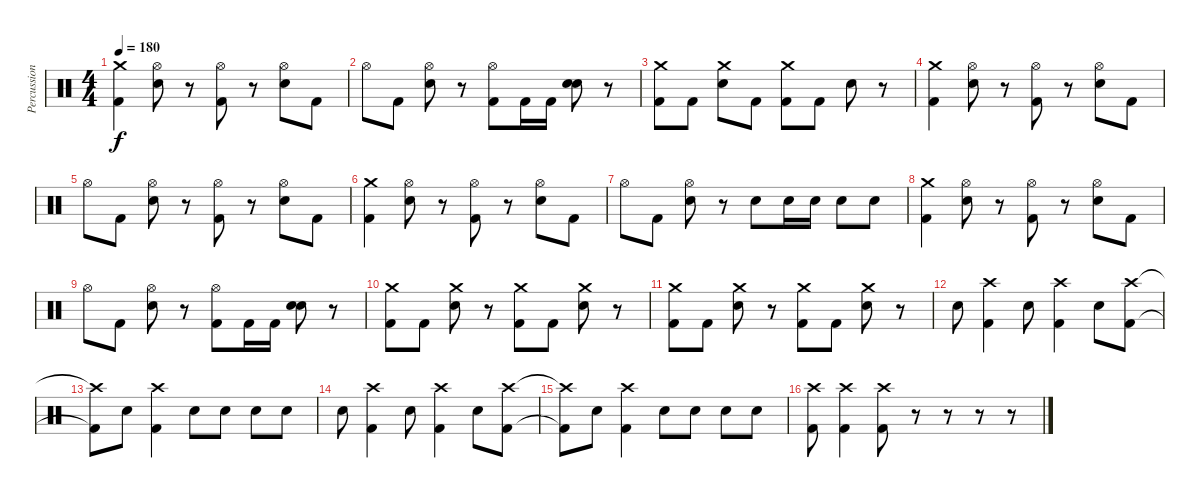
\track ("Percussion" "Percussion") {instrument percussion}
\staff {score}
\articulation defaults
\ts (4 4)
\tempo 180
\clef neutral
\ks c
("Crash medium (hit)" "Kick (hit) 2").4{dy f} ("Hi-Hat (open)" "Snare (hit) 2").8 r.8 ("Hi-Hat (open)" "Kick (hit) 2").8 r.8 ("Hi-Hat (open)" "Snare (hit) 2").8 "Kick (hit) 2".8 |
"Hi-Hat (open)".8 "Kick (hit) 2".8 ("Hi-Hat (open)" "Snare (hit) 2").8 r.8 ("Hi-Hat (open)" "Kick (hit) 2").8 "Kick (hit) 2".16 "Kick (hit) 2".16 ("Snare (hit) 2" "Snare (hit) 2").8 r.8 |
("Crash medium (hit)" "Kick (hit) 2").8 "Kick (hit) 2".8 ("Crash medium (hit)" "Snare (hit) 2").8 "Kick (hit) 2".8 ("Crash medium (hit)" "Kick (hit) 2").8 "Kick (hit) 2".8 "Snare (hit) 2".8 r.8 |
("Crash medium (hit)" "Kick (hit) 2").4 ("Hi-Hat (open)" "Snare (hit) 2").8 r.8 ("Hi-Hat (open)" "Kick (hit) 2").8 r.8 ("Hi-Hat (open)" "Snare (hit) 2").8 "Kick (hit) 2".8 |
"Hi-Hat (open)".8 "Kick (hit) 2".8 ("Hi-Hat (open)" "Snare (hit) 2").8 r.8 ("Hi-Hat (open)" "Kick (hit) 2").8 r.8 ("Hi-Hat (open)" "Snare (hit) 2").8 "Kick (hit) 2".8 |
("Crash medium (hit)" "Kick (hit) 2").4 ("Hi-Hat (open)" "Snare (hit) 2").8 r.8 ("Hi-Hat (open)" "Kick (hit) 2").8 r.8 ("Hi-Hat (open)" "Snare (hit) 2").8 "Kick (hit) 2".8 |
"Hi-Hat (open)".8 "Kick (hit) 2".8 ("Hi-Hat (open)" "Snare (hit) 2").8 r.8 "Snare (hit) 2".8 "Snare (hit) 2".16 "Snare (hit) 2".16 "Snare (hit) 2".8 "Snare (hit) 2".8 |
("Crash medium (hit)" "Kick (hit) 2").4 ("Hi-Hat (open)" "Snare (hit) 2").8 r.8 ("Hi-Hat (open)" "Kick (hit) 2").8 r.8 ("Hi-Hat (open)" "Snare (hit) 2").8 "Kick (hit) 2".8 |
"Hi-Hat (open)".8 "Kick (hit) 2".8 ("Hi-Hat (open)" "Snare (hit) 2").8 r.8 ("Hi-Hat (open)" "Kick (hit) 2").8 "Kick (hit) 2".16 "Kick (hit) 2".16 ("Snare (hit) 2" "Snare (hit) 2").8 r.8 |
("Crash medium (hit)" "Kick (hit) 2").8 "Kick (hit) 2".8 ("Crash medium (hit)" "Snare (hit) 2").8 r.8 ("Crash medium (hit)" "Kick (hit) 2").8 "Kick (hit) 2".8 ("Crash medium (hit)" "Snare (hit) 2").8 r.8 |
("Crash medium (hit)" "Kick (hit) 2").8 "Kick (hit) 2".8 ("Crash medium (hit)" "Snare (hit) 2").8 r.8 ("Crash medium (hit)" "Kick (hit) 2").8 "Kick (hit) 2".8 ("Crash medium (hit)" "Snare (hit) 2").8 r.8 |
"Snare (hit) 2".8 ("Crash high (hit)" "Kick (hit) 2").4 "Snare (hit) 2".8 ("Crash high (hit)" "Kick (hit) 2").4 "Snare (hit) 2".8 ("Crash high (hit)" "Kick (hit) 2").8 |
("Crash high (hit)"{t} "Kick (hit) 2"{t}).8 "Snare (hit) 2".8 ("Crash high (hit)" "Kick (hit) 2").4 "Snare (hit) 2".8 "Snare (hit) 2".8 "Snare (hit) 2".8 "Snare (hit) 2".8 |
"Snare (hit) 2".8 ("Crash high (hit)" "Kick (hit) 2").4 "Snare (hit) 2".8 ("Crash high (hit)" "Kick (hit) 2").4 "Snare (hit) 2".8 ("Crash high (hit)" "Kick (hit) 2").8 |
("Crash high (hit)"{t} "Kick (hit) 2"{t}).8 "Snare (hit) 2".8 ("Crash high (hit)" "Kick (hit) 2").4 "Snare (hit) 2".8 "Snare (hit) 2".8 "Snare (hit) 2".8 "Snare (hit) 2".8 |
("Crash high (hit)" "Kick (hit) 2").8 ("Crash high (hit)" "Kick (hit) 2").4 ("Crash high (hit)" "Kick (hit) 2").8 r.8 r.8 r.8 r.8
